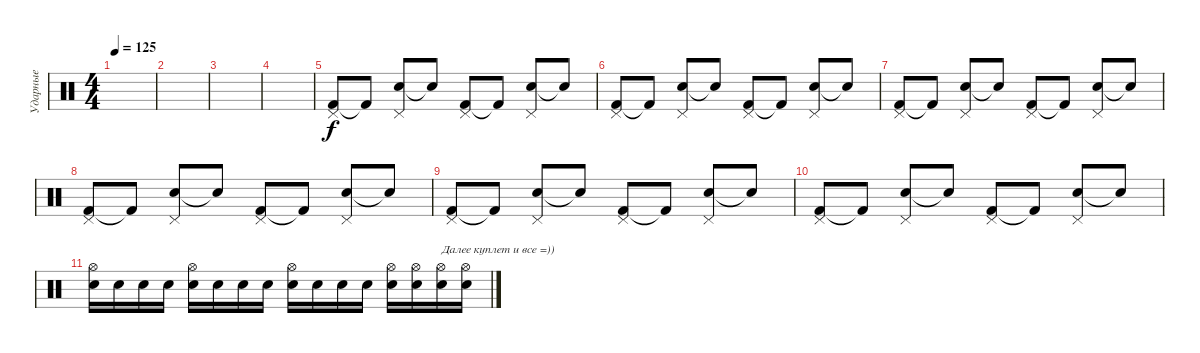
\track ("Ударные" "Ударные") {instrument percussion}
\staff {score}
\articulation defaults
\ts (4 4)
\tempo 125
\clef neutral
\ks c
|
|
|
|
("Kick (hit) 2" "Pedal Hi-Hat (hit)").8 "Kick (hit) 2"{t}.8 ("Electric Snare (hit)" "Pedal Hi-Hat (hit)").8 "Electric Snare (hit)"{t}.8 ("Kick (hit) 2" "Pedal Hi-Hat (hit)").8 "Kick (hit) 2"{t}.8 ("Electric Snare (hit)" "Pedal Hi-Hat (hit)").8 "Electric Snare (hit)"{t}.8 |
("Kick (hit) 2" "Pedal Hi-Hat (hit)").8 "Kick (hit) 2"{t}.8 ("Electric Snare (hit)" "Pedal Hi-Hat (hit)").8 "Electric Snare (hit)"{t}.8 ("Kick (hit) 2" "Pedal Hi-Hat (hit)").8 "Kick (hit) 2"{t}.8 ("Electric Snare (hit)" "Pedal Hi-Hat (hit)").8 "Electric Snare (hit)"{t}.8 |
("Kick (hit) 2" "Pedal Hi-Hat (hit)").8 "Kick (hit) 2"{t}.8 ("Electric Snare (hit)" "Pedal Hi-Hat (hit)").8 "Electric Snare (hit)"{t}.8 ("Kick (hit) 2" "Pedal Hi-Hat (hit)").8 "Kick (hit) 2"{t}.8 ("Electric Snare (hit)" "Pedal Hi-Hat (hit)").8 "Electric Snare (hit)"{t}.8 |
("Kick (hit) 2" "Pedal Hi-Hat (hit)").8 "Kick (hit) 2"{t}.8 ("Electric Snare (hit)" "Pedal Hi-Hat (hit)").8 "Electric Snare (hit)"{t}.8 ("Kick (hit) 2" "Pedal Hi-Hat (hit)").8 "Kick (hit) 2"{t}.8 ("Electric Snare (hit)" "Pedal Hi-Hat (hit)").8 "Electric Snare (hit)"{t}.8 |
("Kick (hit) 2" "Pedal Hi-Hat (hit)").8 "Kick (hit) 2"{t}.8 ("Electric Snare (hit)" "Pedal Hi-Hat (hit)").8 "Electric Snare (hit)"{t}.8 ("Kick (hit) 2" "Pedal Hi-Hat (hit)").8 "Kick (hit) 2"{t}.8 ("Electric Snare (hit)" "Pedal Hi-Hat (hit)").8 "Electric Snare (hit)"{t}.8 |
("Kick (hit) 2" "Pedal Hi-Hat (hit)").8 "Kick (hit) 2"{t}.8 ("Electric Snare (hit)" "Pedal Hi-Hat (hit)").8 "Electric Snare (hit)"{t}.8 ("Kick (hit) 2" "Pedal Hi-Hat (hit)").8 "Kick (hit) 2"{t}.8 ("Electric Snare (hit)" "Pedal Hi-Hat (hit)").8 "Electric Snare (hit)"{t}.8 |
("Electric Snare (hit)" "Hi-Hat (open)").16 "Electric Snare (hit)".16 "Electric Snare (hit)".16 "Electric Snare (hit)".16 ("Electric Snare (hit)" "Hi-Hat (open)").16 "Electric Snare (hit)".16 "Electric Snare (hit)".16 "Electric Snare (hit)".16 ("Electric Snare (hit)" "Hi-Hat (open)").16 "Electric Snare (hit)".16 "Electric Snare (hit)".16 "Electric Snare (hit)".16 ("Electric Snare (hit)" "Hi-Hat (open)").16 ("Electric Snare (hit)" "Hi-Hat (open)").16 ("Electric Snare (hit)" "Hi-Hat (open)").16{txt "Далее куплет и все =))"} ("Electric Snare (hit)" "Hi-Hat (open)").16
